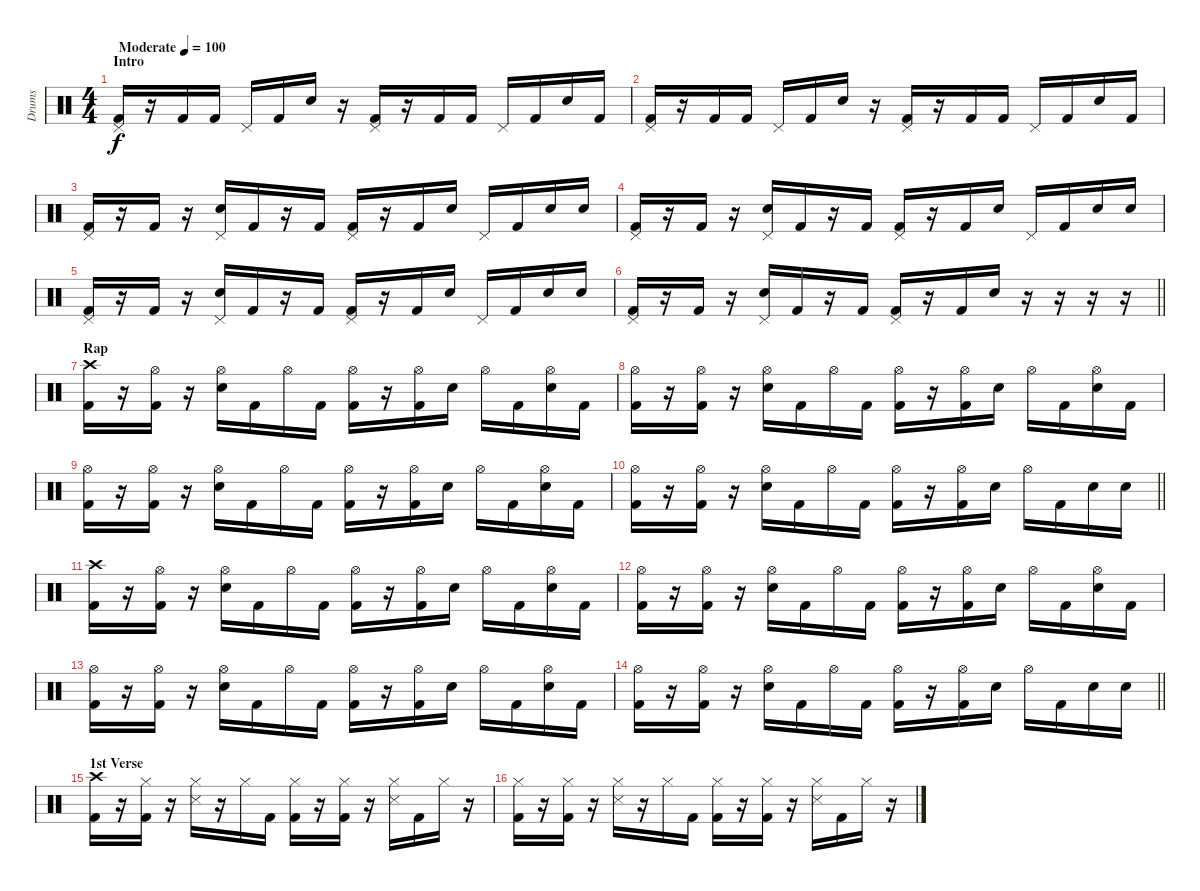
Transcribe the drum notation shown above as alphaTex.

\track ("Drums" "Drums") {instrument percussion}
\staff {score}
\articulation defaults
\ts (4 4)
\section ("" "Intro")
\tempo (100 "Moderate")
\clef neutral
\ks c
("Pedal Hi-Hat (hit)" "Kick (hit) 2").16{dy f} r.16 "Kick (hit) 2".16 "Kick (hit) 2".16 "Pedal Hi-Hat (hit)".16 "Kick (hit) 2".16 "Snare (hit) 2".16 r.16 ("Pedal Hi-Hat (hit)" "Kick (hit) 2").16 r.16 "Kick (hit) 2".16 "Kick (hit) 2".16 "Pedal Hi-Hat (hit)".16 "Kick (hit) 2".16 "Snare (hit) 2".16 "Kick (hit) 2".16 |
("Pedal Hi-Hat (hit)" "Kick (hit) 2").16 r.16 "Kick (hit) 2".16 "Kick (hit) 2".16 "Pedal Hi-Hat (hit)".16 "Kick (hit) 2".16 "Snare (hit) 2".16 r.16 ("Pedal Hi-Hat (hit)" "Kick (hit) 2").16 r.16 "Kick (hit) 2".16 "Kick (hit) 2".16 "Pedal Hi-Hat (hit)".16 "Kick (hit) 2".16 "Snare (hit) 2".16 "Kick (hit) 2".16 |
("Pedal Hi-Hat (hit)" "Kick (hit) 2").16 r.16 "Kick (hit) 2".16 r.16 ("Pedal Hi-Hat (hit)" "Snare (hit) 2").16 "Kick (hit) 2".16 r.16 "Kick (hit) 2".16 ("Pedal Hi-Hat (hit)" "Kick (hit) 2").16 r.16 "Kick (hit) 2".16 "Snare (hit) 2".16 "Pedal Hi-Hat (hit)".16 "Kick (hit) 2".16 "Snare (hit) 2".16 "Snare (hit) 2".16 |
("Pedal Hi-Hat (hit)" "Kick (hit) 2").16 r.16 "Kick (hit) 2".16 r.16 ("Pedal Hi-Hat (hit)" "Snare (hit) 2").16 "Kick (hit) 2".16 r.16 "Kick (hit) 2".16 ("Pedal Hi-Hat (hit)" "Kick (hit) 2").16 r.16 "Kick (hit) 2".16 "Snare (hit) 2".16 "Pedal Hi-Hat (hit)".16 "Kick (hit) 2".16 "Snare (hit) 2".16 "Snare (hit) 2".16 |
("Pedal Hi-Hat (hit)" "Kick (hit) 2").16 r.16 "Kick (hit) 2".16 r.16 ("Pedal Hi-Hat (hit)" "Snare (hit) 2").16 "Kick (hit) 2".16 r.16 "Kick (hit) 2".16 ("Pedal Hi-Hat (hit)" "Kick (hit) 2").16 r.16 "Kick (hit) 2".16 "Snare (hit) 2".16 "Pedal Hi-Hat (hit)".16 "Kick (hit) 2".16 "Snare (hit) 2".16 "Snare (hit) 2".16 |
\barLineRight lightlight
("Pedal Hi-Hat (hit)" "Kick (hit) 2").16 r.16 "Kick (hit) 2".16 r.16 ("Pedal Hi-Hat (hit)" "Snare (hit) 2").16 "Kick (hit) 2".16 r.16 "Kick (hit) 2".16 ("Pedal Hi-Hat (hit)" "Kick (hit) 2").16 r.16 "Kick (hit) 2".16 "Snare (hit) 2".16 r.16 r.16 r.16 r.16 |
\section ("" "Rap")
("Crash high (hit)" "Kick (hit) 2").16 r.16 ("Hi-Hat (open)" "Kick (hit) 2").16 r.16 ("Hi-Hat (open)" "Snare (hit) 2").16 "Kick (hit) 2".16 "Hi-Hat (open)".16 "Kick (hit) 2".16 ("Hi-Hat (open)" "Kick (hit) 2").16 r.16 ("Hi-Hat (open)" "Kick (hit) 2").16 "Snare (hit) 2".16 "Hi-Hat (open)".16 "Kick (hit) 2".16 ("Hi-Hat (open)" "Snare (hit) 2").16 "Kick (hit) 2".16 |
("Hi-Hat (open)" "Kick (hit) 2").16 r.16 ("Hi-Hat (open)" "Kick (hit) 2").16 r.16 ("Hi-Hat (open)" "Snare (hit) 2").16 "Kick (hit) 2".16 "Hi-Hat (open)".16 "Kick (hit) 2".16 ("Hi-Hat (open)" "Kick (hit) 2").16 r.16 ("Hi-Hat (open)" "Kick (hit) 2").16 "Snare (hit) 2".16 "Hi-Hat (open)".16 "Kick (hit) 2".16 ("Hi-Hat (open)" "Snare (hit) 2").16 "Kick (hit) 2".16 |
("Hi-Hat (open)" "Kick (hit) 2").16 r.16 ("Hi-Hat (open)" "Kick (hit) 2").16 r.16 ("Hi-Hat (open)" "Snare (hit) 2").16 "Kick (hit) 2".16 "Hi-Hat (open)".16 "Kick (hit) 2".16 ("Hi-Hat (open)" "Kick (hit) 2").16 r.16 ("Hi-Hat (open)" "Kick (hit) 2").16 "Snare (hit) 2".16 "Hi-Hat (open)".16 "Kick (hit) 2".16 ("Hi-Hat (open)" "Snare (hit) 2").16 "Kick (hit) 2".16 |
\barLineRight lightlight
("Hi-Hat (open)" "Kick (hit) 2").16 r.16 ("Hi-Hat (open)" "Kick (hit) 2").16 r.16 ("Hi-Hat (open)" "Snare (hit) 2").16 "Kick (hit) 2".16 "Hi-Hat (open)".16 "Kick (hit) 2".16 ("Hi-Hat (open)" "Kick (hit) 2").16 r.16 ("Hi-Hat (open)" "Kick (hit) 2").16 "Snare (hit) 2".16 "Hi-Hat (open)".16 "Kick (hit) 2".16 "Snare (hit) 2".16 "Snare (hit) 2".16 |
("Crash high (hit)" "Kick (hit) 2").16 r.16 ("Hi-Hat (open)" "Kick (hit) 2").16 r.16 ("Hi-Hat (open)" "Snare (hit) 2").16 "Kick (hit) 2".16 "Hi-Hat (open)".16 "Kick (hit) 2".16 ("Hi-Hat (open)" "Kick (hit) 2").16 r.16 ("Hi-Hat (open)" "Kick (hit) 2").16 "Snare (hit) 2".16 "Hi-Hat (open)".16 "Kick (hit) 2".16 ("Hi-Hat (open)" "Snare (hit) 2").16 "Kick (hit) 2".16 |
("Hi-Hat (open)" "Kick (hit) 2").16 r.16 ("Hi-Hat (open)" "Kick (hit) 2").16 r.16 ("Hi-Hat (open)" "Snare (hit) 2").16 "Kick (hit) 2".16 "Hi-Hat (open)".16 "Kick (hit) 2".16 ("Hi-Hat (open)" "Kick (hit) 2").16 r.16 ("Hi-Hat (open)" "Kick (hit) 2").16 "Snare (hit) 2".16 "Hi-Hat (open)".16 "Kick (hit) 2".16 ("Hi-Hat (open)" "Snare (hit) 2").16 "Kick (hit) 2".16 |
("Hi-Hat (open)" "Kick (hit) 2").16 r.16 ("Hi-Hat (open)" "Kick (hit) 2").16 r.16 ("Hi-Hat (open)" "Snare (hit) 2").16 "Kick (hit) 2".16 "Hi-Hat (open)".16 "Kick (hit) 2".16 ("Hi-Hat (open)" "Kick (hit) 2").16 r.16 ("Hi-Hat (open)" "Kick (hit) 2").16 "Snare (hit) 2".16 "Hi-Hat (open)".16 "Kick (hit) 2".16 ("Hi-Hat (open)" "Snare (hit) 2").16 "Kick (hit) 2".16 |
\barLineRight lightlight
("Hi-Hat (open)" "Kick (hit) 2").16 r.16 ("Hi-Hat (open)" "Kick (hit) 2").16 r.16 ("Hi-Hat (open)" "Snare (hit) 2").16 "Kick (hit) 2".16 "Hi-Hat (open)".16 "Kick (hit) 2".16 ("Hi-Hat (open)" "Kick (hit) 2").16 r.16 ("Hi-Hat (open)" "Kick (hit) 2").16 "Snare (hit) 2".16 "Hi-Hat (open)".16 "Kick (hit) 2".16 "Snare (hit) 2".16 "Snare (hit) 2".16 |
\section ("" "1st Verse")
("Crash high (hit)" "Kick (hit) 2").16 r.16 ("Hi-Hat (closed)" "Kick (hit) 2").16 r.16 ("Hi-Hat (closed)" "Snare (side stick) 3").16 r.16 "Hi-Hat (closed)".16 "Kick (hit) 2".16 ("Hi-Hat (closed)" "Kick (hit) 2").16 r.16 ("Hi-Hat (closed)" "Kick (hit) 2").16 r.16 ("Hi-Hat (closed)" "Snare (side stick) 3").16 "Kick (hit) 2".16 "Hi-Hat (closed)".16 r.16 |
("Hi-Hat (closed)" "Kick (hit) 2").16 r.16 ("Hi-Hat (closed)" "Kick (hit) 2").16 r.16 ("Hi-Hat (closed)" "Snare (side stick) 3").16 r.16 "Hi-Hat (closed)".16 "Kick (hit) 2".16 ("Hi-Hat (closed)" "Kick (hit) 2").16 r.16 ("Hi-Hat (closed)" "Kick (hit) 2").16 r.16 ("Hi-Hat (closed)" "Snare (side stick) 3").16 "Kick (hit) 2".16 "Hi-Hat (closed)".16 r.16
